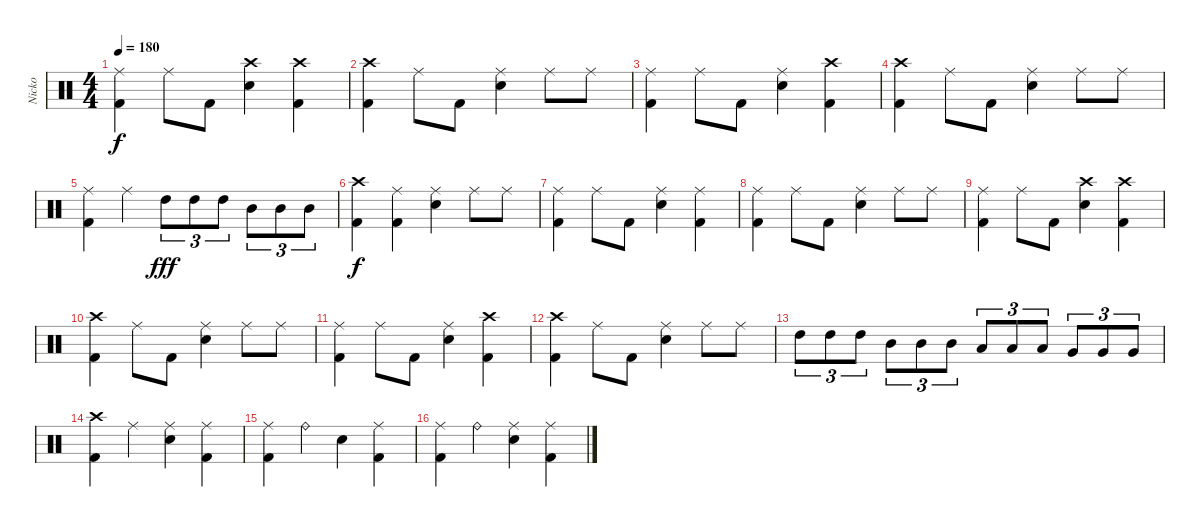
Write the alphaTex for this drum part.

\track ("Nicko" "Nicko") {instrument percussion}
\staff {score}
\articulation defaults
\ts (4 4)
\tempo 180
\clef neutral
\ks c
("Ride (middle)" "Kick (hit) 2").4{dy f} "Ride (middle)".8 "Kick (hit) 2".8 ("Crash high (hit)" "Snare (hit) 2").4 ("Crash high (hit)" "Kick (hit) 2").4 |
("Crash high (hit)" "Kick (hit) 2").4 "Ride (middle)".8 "Kick (hit) 2".8 ("Ride (middle)" "Snare (hit) 2").4 "Ride (middle)".8 "Ride (middle)".8 |
("Ride (middle)" "Kick (hit) 2").4 "Ride (middle)".8 "Kick (hit) 2".8 ("Ride (middle)" "Snare (hit) 2").4 ("Crash high (hit)" "Kick (hit) 2").4 |
("Crash high (hit)" "Kick (hit) 2").4 "Ride (middle)".8 "Kick (hit) 2".8 ("Ride (middle)" "Snare (hit) 2").4 "Ride (middle)".8 "Ride (middle)".8 |
("Ride (middle)" "Kick (hit) 2").4 "Ride (middle)".4 "High Tom (hit)".8{tu (3 2) dy fff} "High Tom (hit)".8{tu (3 2)} "High Tom (hit)".8{tu (3 2)} "Mid Tom (hit)".8{tu (3 2)} "Mid Tom (hit)".8{tu (3 2)} "Mid Tom (hit)".8{tu (3 2)} |
("Crash high (hit)" "Kick (hit) 2").4{dy f} ("Ride (middle)" "Kick (hit) 2").4 ("Ride (middle)" "Snare (hit) 2").4 "Ride (middle)".8 "Ride (middle)".8 |
("Ride (middle)" "Kick (hit) 2").4 "Ride (middle)".8 "Kick (hit) 2".8 ("Ride (middle)" "Snare (hit) 2").4 ("Ride (middle)" "Kick (hit) 2").4 |
("Ride (middle)" "Kick (hit) 2").4 "Ride (middle)".8 "Kick (hit) 2".8 ("Ride (middle)" "Snare (hit) 2").4 "Ride (middle)".8 "Ride (middle)".8 |
("Ride (middle)" "Kick (hit) 2").4 "Ride (middle)".8 "Kick (hit) 2".8 ("Crash high (hit)" "Snare (hit) 2").4 ("Crash high (hit)" "Kick (hit) 2").4 |
("Crash high (hit)" "Kick (hit) 2").4 "Ride (middle)".8 "Kick (hit) 2".8 ("Ride (middle)" "Snare (hit) 2").4 "Ride (middle)".8 "Ride (middle)".8 |
("Ride (middle)" "Kick (hit) 2").4 "Ride (middle)".8 "Kick (hit) 2".8 ("Ride (middle)" "Snare (hit) 2").4 ("Crash high (hit)" "Kick (hit) 2").4 |
("Crash high (hit)" "Kick (hit) 2").4 "Ride (middle)".8 "Kick (hit) 2".8 ("Ride (middle)" "Snare (hit) 2").4 "Ride (middle)".8 "Ride (middle)".8 |
"High Tom (hit)".8{tu (3 2)} "High Tom (hit)".8{tu (3 2)} "High Tom (hit)".8{tu (3 2)} "Mid Tom (hit)".8{tu (3 2)} "Mid Tom (hit)".8{tu (3 2)} "Mid Tom (hit)".8{tu (3 2)} "Low Tom (hit)".8{tu (3 2)} "Low Tom (hit)".8{tu (3 2)} "Low Tom (hit)".8{tu (3 2)} "Very Low Tom (hit)".8{tu (3 2)} "Very Low Tom (hit)".8{tu (3 2)} "Very Low Tom (hit)".8{tu (3 2)} |
("Crash high (hit)" "Kick (hit) 2").4 "Ride (middle)".4 ("Ride (middle)" "Snare (hit) 2").4 ("Ride (middle)" "Kick (hit) 2").4 |
("Ride (middle)" "Kick (hit) 2").4 "Ride (bell)".4 "Snare (hit) 2".4 ("Ride (middle)" "Kick (hit) 2").4 |
("Ride (middle)" "Kick (hit) 2").4 "Ride (bell)".4 ("Ride (middle)" "Snare (hit) 2").4 ("Ride (middle)" "Kick (hit) 2").4
